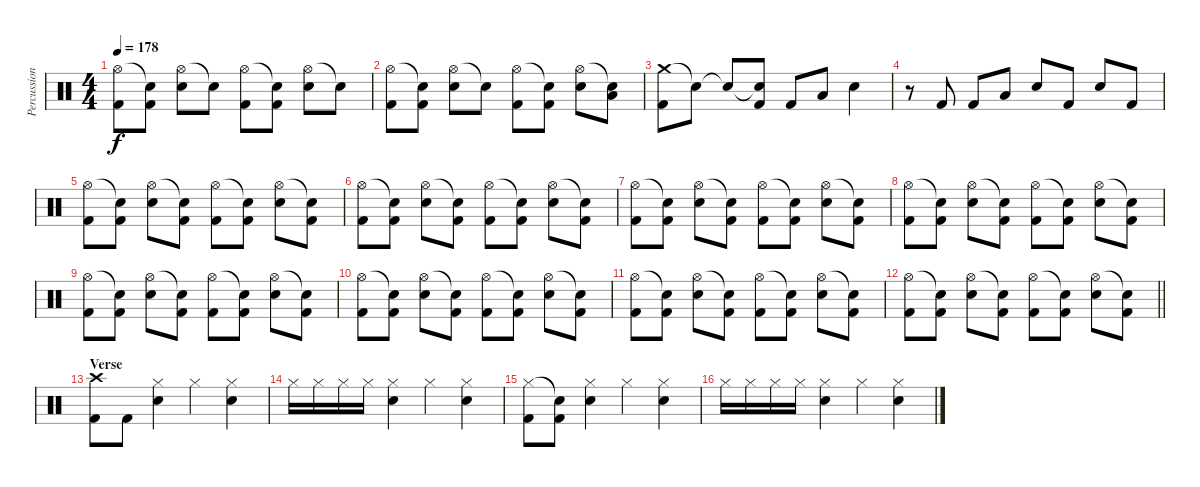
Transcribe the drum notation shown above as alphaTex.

\track ("Percussion" "Percussion") {instrument percussion}
\staff {score}
\articulation defaults
\ts (4 4)
\tempo 178
\clef neutral
\ks c
("Hi-Hat (open)" "Kick (hit) 2").8{dy f} ("Snare (hit)"{t} "Kick (hit) 2").8 ("Hi-Hat (open)" "Snare (hit) 2").8 "Snare (hit)"{t}.8 ("Hi-Hat (open)" "Kick (hit) 2").8 ("Snare (hit)"{t} "Kick (hit) 2").8 ("Hi-Hat (open)" "Snare (hit) 2").8 "Snare (hit)"{t}.8 |
("Hi-Hat (open)" "Kick (hit) 2").8 ("Snare (hit)"{t} "Kick (hit) 2").8 ("Hi-Hat (open)" "Snare (hit) 2").8 "Snare (hit)"{t}.8 ("Hi-Hat (open)" "Kick (hit) 2").8 ("Snare (hit)"{t} "Kick (hit) 2").8 ("Hi-Hat (open)" "Snare (hit) 2").8 ("Snare (hit)"{t} "Low Tom (hit)").8 |
("Crash medium (hit)" "Kick (hit) 2").8 "Snare (hit)"{t}.8 "Snare (hit)"{t}.8 ("Snare (hit)"{t} "Kick (hit) 2").8 "Kick (hit) 2".8 "Low Tom (hit)".8 "Snare (hit) 2".4 |
r.8 "Kick (hit) 2".8 "Kick (hit) 2".8 "Low Tom (hit)".8 "Snare (hit) 2".8 "Kick (hit) 2".8 "Snare (hit) 2".8 "Kick (hit) 2".8 |
("Hi-Hat (open)" "Kick (hit) 2").8 ("Snare (hit)"{t} "Kick (hit) 2").8 ("Hi-Hat (open)" "Snare (hit) 2").8 ("Snare (hit)"{t} "Kick (hit) 2").8 ("Hi-Hat (open)" "Kick (hit) 2").8 ("Snare (hit)"{t} "Kick (hit) 2").8 ("Hi-Hat (open)" "Snare (hit) 2").8 ("Snare (hit)"{t} "Kick (hit) 2").8 |
("Hi-Hat (open)" "Kick (hit) 2").8 ("Snare (hit)"{t} "Kick (hit) 2").8 ("Hi-Hat (open)" "Snare (hit) 2").8 ("Snare (hit)"{t} "Kick (hit) 2").8 ("Hi-Hat (open)" "Kick (hit) 2").8 ("Snare (hit)"{t} "Kick (hit) 2").8 ("Hi-Hat (open)" "Snare (hit) 2").8 ("Snare (hit)"{t} "Kick (hit) 2").8 |
("Hi-Hat (open)" "Kick (hit) 2").8 ("Snare (hit)"{t} "Kick (hit) 2").8 ("Hi-Hat (open)" "Snare (hit) 2").8 ("Snare (hit)"{t} "Kick (hit) 2").8 ("Hi-Hat (open)" "Kick (hit) 2").8 ("Snare (hit)"{t} "Kick (hit) 2").8 ("Hi-Hat (open)" "Snare (hit) 2").8 ("Snare (hit)"{t} "Kick (hit) 2").8 |
("Hi-Hat (open)" "Kick (hit) 2").8 ("Snare (hit)"{t} "Kick (hit) 2").8 ("Hi-Hat (open)" "Snare (hit) 2").8 ("Snare (hit)"{t} "Kick (hit) 2").8 ("Hi-Hat (open)" "Kick (hit) 2").8 ("Snare (hit)"{t} "Kick (hit) 2").8 ("Hi-Hat (open)" "Snare (hit) 2").8 ("Snare (hit)"{t} "Kick (hit) 2").8 |
("Hi-Hat (open)" "Kick (hit) 2").8 ("Snare (hit)"{t} "Kick (hit) 2").8 ("Hi-Hat (open)" "Snare (hit) 2").8 ("Snare (hit)"{t} "Kick (hit) 2").8 ("Hi-Hat (open)" "Kick (hit) 2").8 ("Snare (hit)"{t} "Kick (hit) 2").8 ("Hi-Hat (open)" "Snare (hit) 2").8 ("Snare (hit)"{t} "Kick (hit) 2").8 |
("Hi-Hat (open)" "Kick (hit) 2").8 ("Snare (hit)"{t} "Kick (hit) 2").8 ("Hi-Hat (open)" "Snare (hit) 2").8 ("Snare (hit)"{t} "Kick (hit) 2").8 ("Hi-Hat (open)" "Kick (hit) 2").8 ("Snare (hit)"{t} "Kick (hit) 2").8 ("Hi-Hat (open)" "Snare (hit) 2").8 ("Snare (hit)"{t} "Kick (hit) 2").8 |
("Hi-Hat (open)" "Kick (hit) 2").8 ("Snare (hit)"{t} "Kick (hit) 2").8 ("Hi-Hat (open)" "Snare (hit) 2").8 ("Snare (hit)"{t} "Kick (hit) 2").8 ("Hi-Hat (open)" "Kick (hit) 2").8 ("Snare (hit)"{t} "Kick (hit) 2").8 ("Hi-Hat (open)" "Snare (hit) 2").8 ("Snare (hit)"{t} "Kick (hit) 2").8 |
\barLineRight lightlight
("Hi-Hat (open)" "Kick (hit) 2").8 ("Snare (hit)"{t} "Kick (hit) 2").8 ("Hi-Hat (open)" "Snare (hit) 2").8 ("Snare (hit)"{t} "Kick (hit) 2").8 ("Hi-Hat (open)" "Kick (hit) 2").8 ("Snare (hit)"{t} "Kick (hit) 2").8 ("Hi-Hat (open)" "Snare (hit) 2").8 ("Snare (hit)"{t} "Kick (hit) 2").8 |
\section ("" "Verse")
("Crash high (hit)" "Kick (hit) 2").8 "Kick (hit) 2".8 ("Hi-Hat (closed)" "Snare (hit) 2").4 "Hi-Hat (closed)".4 ("Hi-Hat (closed)" "Snare (hit) 2").4 |
"Hi-Hat (closed)".16 "Hi-Hat (closed)".16 "Hi-Hat (closed)".16 "Hi-Hat (closed)".16 ("Hi-Hat (closed)" "Snare (hit) 2").4 "Hi-Hat (closed)".4 ("Hi-Hat (closed)" "Snare (hit) 2").4 |
("Hi-Hat (closed)" "Kick (hit) 2").8 ("Snare (hit)"{t} "Kick (hit) 2").8 ("Hi-Hat (closed)" "Snare (hit) 2").4 "Hi-Hat (closed)".4 ("Hi-Hat (closed)" "Snare (hit) 2").4 |
"Hi-Hat (closed)".16 "Hi-Hat (closed)".16 "Hi-Hat (closed)".16 "Hi-Hat (closed)".16 ("Hi-Hat (closed)" "Snare (hit) 2").4 "Hi-Hat (closed)".4 ("Hi-Hat (closed)" "Snare (hit) 2").4
